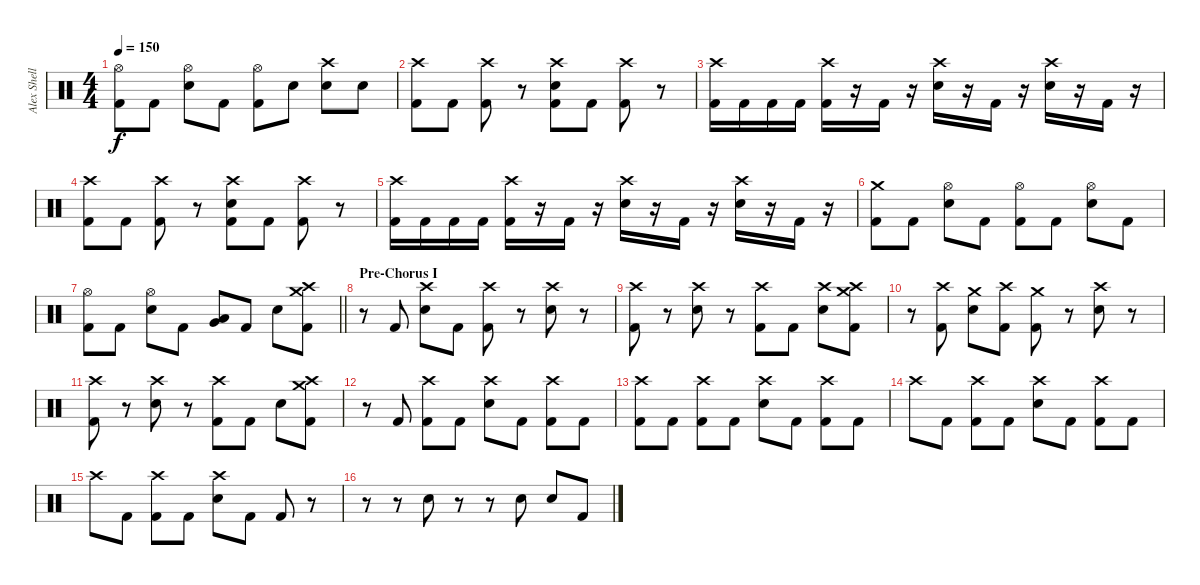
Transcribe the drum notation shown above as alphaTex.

\track ("Alex Shellnutt" "Alex Shell") {instrument percussion}
\staff {score}
\articulation defaults
\ts (4 4)
\tempo 150
\clef neutral
\ks c
("Hi-Hat (open)" "Kick (hit) 2").8{dy f} "Kick (hit) 2".8 ("Hi-Hat (open)" "Snare (hit) 2").8 "Kick (hit) 2".8 ("Hi-Hat (open)" "Kick (hit) 2").8 "Snare (hit) 2".8 ("Crash high (hit)" "Snare (hit) 2").8 "Snare (hit) 2".8 |
("Crash high (hit)" "Kick (hit) 2").8 "Kick (hit) 2".8 ("Crash high (hit)" "Kick (hit) 2").8 r.8 ("Crash high (hit)" "Snare (hit) 2" "Kick (hit) 2").8 "Kick (hit) 2".8 ("Crash high (hit)" "Kick (hit) 2").8 r.8 |
("Crash high (hit)" "Kick (hit) 2").16 "Kick (hit) 2".16 "Kick (hit) 2".16 "Kick (hit) 2".16 ("Crash high (hit)" "Kick (hit) 2").16 r.16 "Kick (hit) 2".16 r.16 ("Crash high (hit)" "Snare (hit) 2").16 r.16 "Kick (hit) 2".16 r.16 ("Crash high (hit)" "Snare (hit) 2").16 r.16 "Kick (hit) 2".16 r.16 |
("Crash high (hit)" "Kick (hit) 2").8 "Kick (hit) 2".8 ("Crash high (hit)" "Kick (hit) 2").8 r.8 ("Crash high (hit)" "Snare (hit) 2" "Kick (hit) 2").8 "Kick (hit) 2".8 ("Crash high (hit)" "Kick (hit) 2").8 r.8 |
("Crash high (hit)" "Kick (hit) 2").16 "Kick (hit) 2".16 "Kick (hit) 2".16 "Kick (hit) 2".16 ("Crash high (hit)" "Kick (hit) 2").16 r.16 "Kick (hit) 2".16 r.16 ("Crash high (hit)" "Snare (hit) 2").16 r.16 "Kick (hit) 2".16 r.16 ("Crash high (hit)" "Snare (hit) 2").16 r.16 "Kick (hit) 2".16 r.16 |
("Crash medium (hit)" "Kick (hit) 2").8 "Kick (hit) 2".8 ("Hi-Hat (open)" "Snare (hit) 2").8 "Kick (hit) 2".8 ("Hi-Hat (open)" "Kick (hit) 2").8 "Kick (hit) 2".8 ("Hi-Hat (open)" "Snare (hit) 2").8 "Kick (hit) 2".8 |
\barLineRight lightlight
("Hi-Hat (open)" "Kick (hit) 2").8 "Kick (hit) 2".8 ("Hi-Hat (open)" "Snare (hit) 2").8 "Kick (hit) 2".8 ("Very Low Tom (hit)" "Low Floor Tom (hit)").8 "Kick (hit) 2".8 "Snare (hit) 2".8 ("Crash medium (hit)" "Crash high (hit)" "Kick (hit) 2").8 |
\section ("" "Pre-Chorus I")
r.8 "Kick (hit) 2".8 ("Crash high (hit)" "Snare (hit) 2").8 "Kick (hit) 2".8 ("Crash high (hit)" "Kick (hit) 2").8 r.8 ("Crash high (hit)" "Snare (hit) 2").8 r.8 |
("Crash high (hit)" "Kick (hit) 2").8 r.8 ("Crash high (hit)" "Snare (hit) 2").8 r.8 ("Crash high (hit)" "Kick (hit) 2").8 "Kick (hit) 2".8 ("Crash high (hit)" "Snare (hit) 2").8 ("Crash medium (hit)" "Crash high (hit)" "Kick (hit) 2").8 |
r.8 ("Crash high (hit)" "Kick (hit) 2").8 ("Crash medium (hit)" "Snare (hit) 2").8 ("Crash high (hit)" "Kick (hit) 2").8 ("Crash medium (hit)" "Kick (hit) 2").8 r.8 ("Crash high (hit)" "Snare (hit) 2").8 r.8 |
("Crash high (hit)" "Kick (hit) 2").8 r.8 ("Crash high (hit)" "Snare (hit) 2").8 r.8 ("Crash high (hit)" "Kick (hit) 2").8 "Kick (hit) 2".8 "Snare (hit) 2".8 ("Crash medium (hit)" "Crash high (hit)" "Kick (hit) 2").8 |
r.8 "Kick (hit) 2".8 ("Crash high (hit)" "Kick (hit) 2").8 "Kick (hit) 2".8 ("Crash high (hit)" "Snare (hit) 2").8 "Kick (hit) 2".8 ("Crash high (hit)" "Kick (hit) 2").8 "Kick (hit) 2".8 |
("Crash high (hit)" "Kick (hit) 2").8 "Kick (hit) 2".8 ("Crash high (hit)" "Kick (hit) 2").8 "Kick (hit) 2".8 ("Crash high (hit)" "Snare (hit) 2").8 "Kick (hit) 2".8 ("Crash high (hit)" "Kick (hit) 2").8 "Kick (hit) 2".8 |
"Crash high (hit)".8 "Kick (hit) 2".8 ("Crash high (hit)" "Kick (hit) 2").8 "Kick (hit) 2".8 ("Crash high (hit)" "Snare (hit) 2").8 "Kick (hit) 2".8 ("Crash high (hit)" "Kick (hit) 2").8 "Kick (hit) 2".8 |
"Crash high (hit)".8 "Kick (hit) 2".8 ("Crash high (hit)" "Kick (hit) 2").8 "Kick (hit) 2".8 ("Crash high (hit)" "Snare (hit) 2").8 "Kick (hit) 2".8 "Kick (hit) 2".8 r.8 |
r.8 r.8 "Snare (hit) 2".8 r.8 r.8 "Snare (hit) 2".8 "Snare (hit) 2".8 "Kick (hit) 2".8
